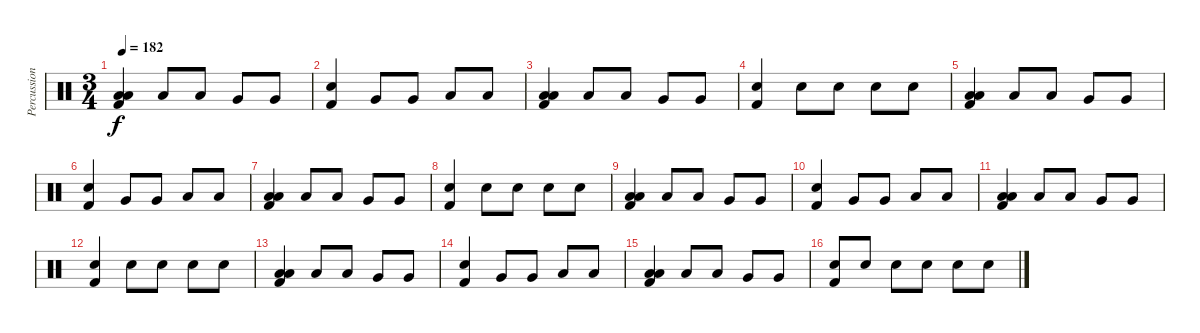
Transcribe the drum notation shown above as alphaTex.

\track ("Percussion" "Percussion") {instrument percussion}
\staff {score}
\articulation defaults
\ts (3 4)
\tempo 182
\clef neutral
\ks c
("Low Floor Tom (hit)" "Low Floor Tom (hit)" "Kick (hit) 2").4{dy f volume 12} "Low Tom (hit)".8 "Low Tom (hit)".8 "Very Low Tom (hit)".8 "Very Low Tom (hit)".8 |
("Electric Snare (hit)" "Kick (hit) 2").4 "Very Low Tom (hit)".8 "Very Low Tom (hit)".8 "Low Floor Tom (hit)".8 "Low Floor Tom (hit)".8 |
("Low Floor Tom (hit)" "Low Floor Tom (hit)" "Kick (hit) 2").4 "Low Tom (hit)".8 "Low Tom (hit)".8 "Very Low Tom (hit)".8 "Very Low Tom (hit)".8 |
("Electric Snare (hit)" "Kick (hit) 2").4 "Electric Snare (hit)".8 "Electric Snare (hit)".8 "Electric Snare (hit)".8 "Electric Snare (hit)".8 |
("Low Floor Tom (hit)" "Low Floor Tom (hit)" "Kick (hit) 2").4 "Low Tom (hit)".8 "Low Tom (hit)".8 "Very Low Tom (hit)".8 "Very Low Tom (hit)".8 |
("Electric Snare (hit)" "Kick (hit) 2").4 "Very Low Tom (hit)".8 "Very Low Tom (hit)".8 "Low Floor Tom (hit)".8 "Low Floor Tom (hit)".8 |
("Low Floor Tom (hit)" "Low Floor Tom (hit)" "Kick (hit) 2").4 "Low Tom (hit)".8 "Low Tom (hit)".8 "Very Low Tom (hit)".8 "Very Low Tom (hit)".8 |
("Electric Snare (hit)" "Kick (hit) 2").4 "Electric Snare (hit)".8 "Electric Snare (hit)".8 "Electric Snare (hit)".8 "Electric Snare (hit)".8 |
("Low Floor Tom (hit)" "Low Floor Tom (hit)" "Kick (hit) 2").4{volume 10} "Low Tom (hit)".8 "Low Tom (hit)".8 "Very Low Tom (hit)".8 "Very Low Tom (hit)".8 |
("Electric Snare (hit)" "Kick (hit) 2").4 "Very Low Tom (hit)".8 "Very Low Tom (hit)".8 "Low Floor Tom (hit)".8 "Low Floor Tom (hit)".8 |
("Low Floor Tom (hit)" "Low Floor Tom (hit)" "Kick (hit) 2").4 "Low Tom (hit)".8 "Low Tom (hit)".8 "Very Low Tom (hit)".8 "Very Low Tom (hit)".8 |
("Electric Snare (hit)" "Kick (hit) 2").4 "Electric Snare (hit)".8 "Electric Snare (hit)".8 "Electric Snare (hit)".8 "Electric Snare (hit)".8 |
("Low Floor Tom (hit)" "Low Floor Tom (hit)" "Kick (hit) 2").4 "Low Tom (hit)".8 "Low Tom (hit)".8 "Very Low Tom (hit)".8 "Very Low Tom (hit)".8 |
("Electric Snare (hit)" "Kick (hit) 2").4 "Very Low Tom (hit)".8 "Very Low Tom (hit)".8 "Low Floor Tom (hit)".8 "Low Floor Tom (hit)".8 |
("Low Floor Tom (hit)" "Low Floor Tom (hit)" "Kick (hit) 2").4 "Low Tom (hit)".8 "Low Tom (hit)".8 "Very Low Tom (hit)".8 "Very Low Tom (hit)".8 |
("Electric Snare (hit)" "Kick (hit) 2").8 "Electric Snare (hit)".8 "Electric Snare (hit)".8 "Electric Snare (hit)".8 "Electric Snare (hit)".8 "Electric Snare (hit)".8
